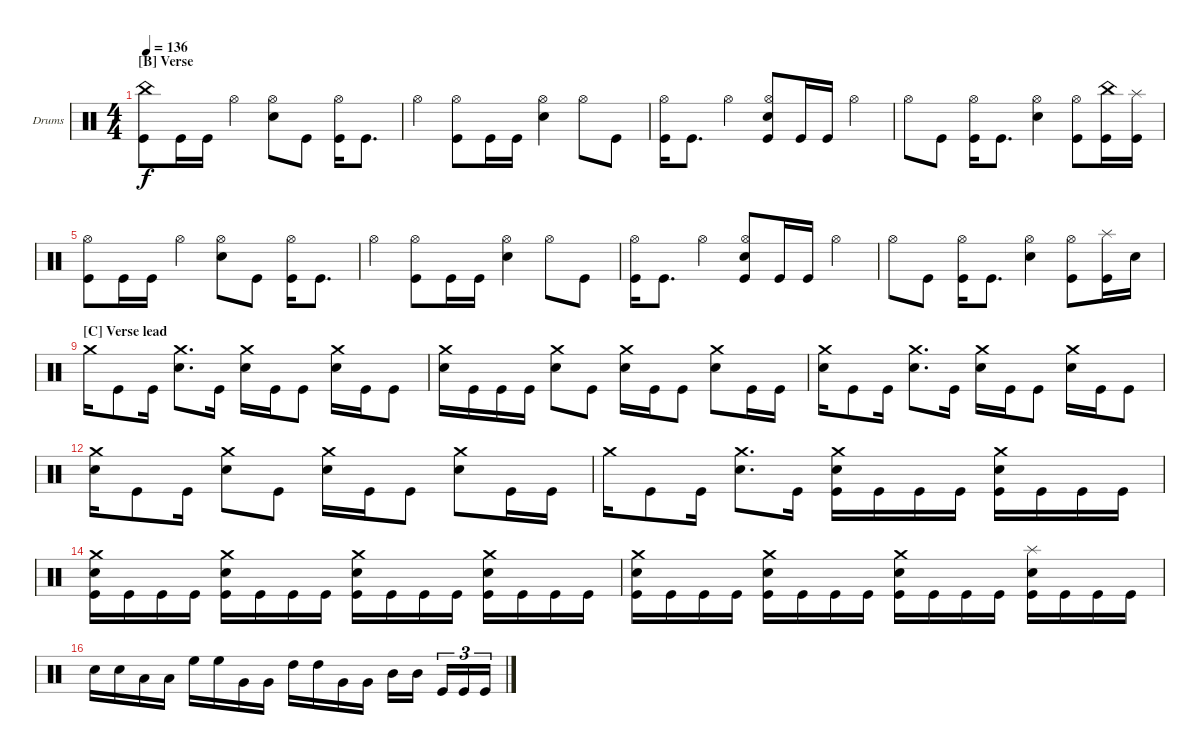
\defaultSystemsLayout 4
\bracketExtendMode groupsimilarinstruments
\firstSystemTrackNameOrientation horizontal
\otherSystemsTrackNameOrientation horizontal
\defaultBarNumberDisplay FirstOfSystem
\track ("Drumkit" "Drums") {multiBarRest instrument percussion}
\staff {score}
\articulation defaults
\ts (4 4)
\section ("B" "Verse")
\tempo 136
\clef neutral
\ks c
("China (hit)" "Kick (hit)").8{dy f} "Kick (hit)".16 "Kick (hit)".16 "Hi-Hat (open)".4 ("Hi-Hat (open)" "Snare (hit) 2").8 "Kick (hit)".8 ("Kick (hit)" "Hi-Hat (open)").16 "Kick (hit)".8{d} |
"Hi-Hat (open)".4 ("Kick (hit)" "Hi-Hat (open)").8 "Kick (hit)".16 "Kick (hit)".16 ("Snare (hit) 2" "Hi-Hat (open)").4 "Hi-Hat (open)".8 "Kick (hit)".8 |
("Hi-Hat (open)" "Kick (hit)").16 "Kick (hit)".8{d} "Hi-Hat (open)".4 ("Hi-Hat (open)" "Kick (hit)" "Snare (hit) 2").8 "Kick (hit)".16 "Kick (hit)".16 "Hi-Hat (open)".4 |
"Hi-Hat (open)".8 "Kick (hit)".8 ("Kick (hit)" "Hi-Hat (open)").16 "Kick (hit)".8{d} ("Snare (hit) 2" "Hi-Hat (open)").4 ("Hi-Hat (open)" "Kick (hit)").8 ("Kick (hit)" "China (hit)").16 ("Kick (hit)" "Splash (hit)").16 |
("Kick (hit)" "Hi-Hat (open)").8 "Kick (hit)".16 "Kick (hit)".16 "Hi-Hat (open)".4 ("Hi-Hat (open)" "Snare (hit) 2").8 "Kick (hit)".8 ("Kick (hit)" "Hi-Hat (open)").16 "Kick (hit)".8{d} |
"Hi-Hat (open)".4 ("Kick (hit)" "Hi-Hat (open)").8 "Kick (hit)".16 "Kick (hit)".16 ("Snare (hit) 2" "Hi-Hat (open)").4 "Hi-Hat (open)".8 "Kick (hit)".8 |
("Hi-Hat (open)" "Kick (hit)").16 "Kick (hit)".8{d} "Hi-Hat (open)".4 ("Hi-Hat (open)" "Kick (hit)" "Snare (hit) 2").8 "Kick (hit)".16 "Kick (hit)".16 "Hi-Hat (open)".4 |
"Hi-Hat (open)".8 "Kick (hit)".8 ("Kick (hit)" "Hi-Hat (open)").16 "Kick (hit)".8{d} ("Snare (hit) 2" "Hi-Hat (open)").4 ("Hi-Hat (open)" "Kick (hit)").8 ("Kick (hit)" "Splash (hit)").16 "Snare (hit) 2".16 |
\section ("C" "Verse lead")
"Crash medium (hit)".16 "Kick (hit)".8 "Kick (hit)".16 ("Snare (hit) 2" "Crash medium (hit)").8{d} "Kick (hit)".16 ("Snare (hit) 2" "Crash medium (hit)").16 "Kick (hit)".16 "Kick (hit)".8 ("Snare (hit) 2" "Crash medium (hit)").16 "Kick (hit)".16 "Kick (hit)".8 |
("Snare (hit) 2" "Crash medium (hit)").16 "Kick (hit)".16 "Kick (hit)".16 "Kick (hit)".16 ("Snare (hit) 2" "Crash medium (hit)").8 "Kick (hit)".8 ("Snare (hit) 2" "Crash medium (hit)").16 "Kick (hit)".16 "Kick (hit)".8 ("Snare (hit) 2" "Crash medium (hit)").8 "Kick (hit)".16 "Kick (hit)".16 |
("Snare (hit) 2" "Crash medium (hit)").16 "Kick (hit)".8 "Kick (hit)".16 ("Snare (hit) 2" "Crash medium (hit)").8{d} "Kick (hit)".16 ("Snare (hit) 2" "Crash medium (hit)").16 "Kick (hit)".16 "Kick (hit)".8 ("Snare (hit) 2" "Crash medium (hit)").16 "Kick (hit)".16 "Kick (hit)".8 |
("Snare (hit) 2" "Crash medium (hit)").16 "Kick (hit)".8 "Kick (hit)".16 ("Snare (hit) 2" "Crash medium (hit)").8 "Kick (hit)".8 ("Snare (hit) 2" "Crash medium (hit)").16 "Kick (hit)".16 "Kick (hit)".8 ("Snare (hit) 2" "Crash medium (hit)").8 "Kick (hit)".16 "Kick (hit)".16 |
"Crash medium (hit)".16 "Kick (hit)".8 "Kick (hit)".16 ("Snare (hit) 2" "Crash medium (hit)").8{d} "Kick (hit)".16 ("Snare (hit) 2" "Crash medium (hit)" "Kick (hit)").16 "Kick (hit)".16 "Kick (hit)".16 "Kick (hit)".16 ("Snare (hit) 2" "Crash medium (hit)" "Kick (hit)").16 "Kick (hit)".16 "Kick (hit)".16 "Kick (hit)".16 |
("Snare (hit) 2" "Crash medium (hit)" "Kick (hit)").16 "Kick (hit)".16 "Kick (hit)".16 "Kick (hit)".16 ("Snare (hit) 2" "Crash medium (hit)" "Kick (hit)").16 "Kick (hit)".16 "Kick (hit)".16 "Kick (hit)".16 ("Snare (hit) 2" "Crash medium (hit)" "Kick (hit)").16 "Kick (hit)".16 "Kick (hit)".16 "Kick (hit)".16 ("Snare (hit) 2" "Crash medium (hit)" "Kick (hit)").16 "Kick (hit)".16 "Kick (hit)".16 "Kick (hit)".16 |
("Snare (hit) 2" "Crash medium (hit)" "Kick (hit)").16 "Kick (hit)".16 "Kick (hit)".16 "Kick (hit)".16 ("Snare (hit) 2" "Crash medium (hit)" "Kick (hit)").16 "Kick (hit)".16 "Kick (hit)".16 "Kick (hit)".16 ("Snare (hit) 2" "Crash medium (hit)" "Kick (hit)").16 "Kick (hit)".16 "Kick (hit)".16 "Kick (hit)".16 ("Snare (hit) 2" "Kick (hit)" "Splash (hit)").16 "Kick (hit)".16 "Kick (hit)".16 "Kick (hit)".16 |
"Snare (hit) 2".16 "Snare (hit) 2".16 "Low Tom (hit)".16 "Low Tom (hit)".16 "High Floor Tom (hit)".16 "High Floor Tom (hit)".16 "Very Low Tom (hit)".16 "Very Low Tom (hit)".16 "High Tom (hit)".16 "High Tom (hit)".16 "Very Low Tom (hit)".16 "Very Low Tom (hit)".16 "Mid Tom (hit)".16 "Mid Tom (hit)".16 "Kick (hit)".16{tu (3 2)} "Kick (hit)".16{tu (3 2)} "Kick (hit)".16{tu (3 2)}
